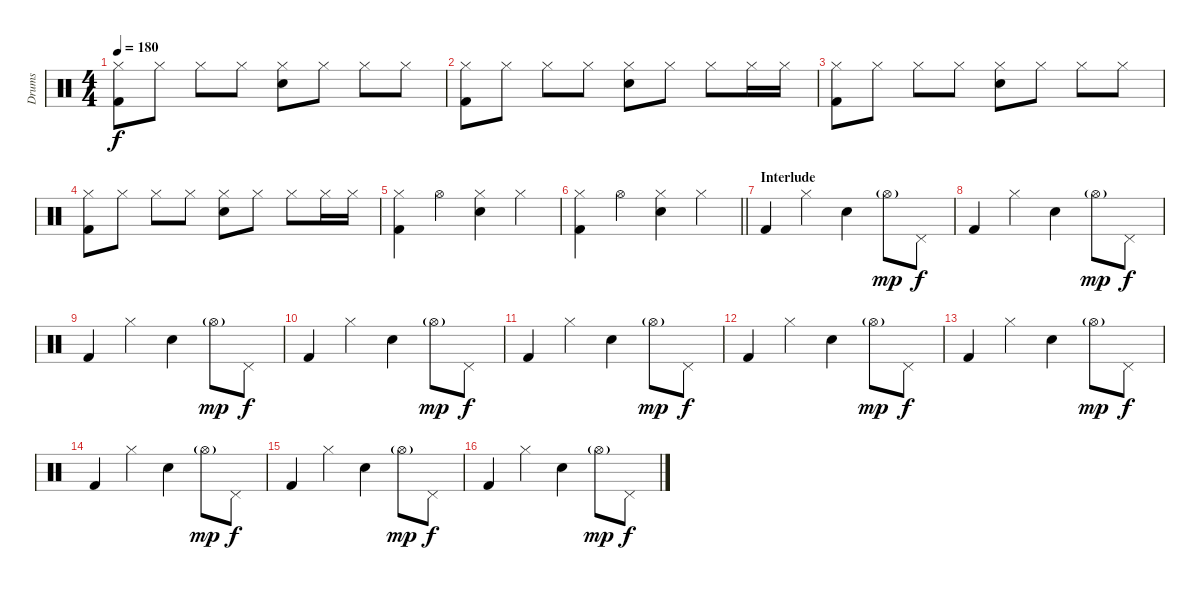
\track ("Drums" "Drums") {instrument percussion}
\staff
\articulation defaults
\ts (4 4)
\tempo 180
\clef neutral
\ks c
("Hi-Hat (closed)" "Kick (hit) 2").8{dy f} "Hi-Hat (closed)".8 "Hi-Hat (closed)".8 "Hi-Hat (closed)".8 ("Hi-Hat (closed)" "Electric Snare (hit)").8 "Hi-Hat (closed)".8 "Hi-Hat (closed)".8 "Hi-Hat (closed)".8 |
("Hi-Hat (closed)" "Kick (hit) 2").8 "Hi-Hat (closed)".8 "Hi-Hat (closed)".8 "Hi-Hat (closed)".8 ("Hi-Hat (closed)" "Electric Snare (hit)").8 "Hi-Hat (closed)".8 "Hi-Hat (closed)".8 "Hi-Hat (closed)".16 "Hi-Hat (closed)".16 |
("Hi-Hat (closed)" "Kick (hit) 2").8 "Hi-Hat (closed)".8 "Hi-Hat (closed)".8 "Hi-Hat (closed)".8 ("Hi-Hat (closed)" "Electric Snare (hit)").8 "Hi-Hat (closed)".8 "Hi-Hat (closed)".8 "Hi-Hat (closed)".8 |
("Hi-Hat (closed)" "Kick (hit) 2").8 "Hi-Hat (closed)".8 "Hi-Hat (closed)".8 "Hi-Hat (closed)".8 ("Hi-Hat (closed)" "Electric Snare (hit)").8 "Hi-Hat (closed)".8 "Hi-Hat (closed)".8 "Hi-Hat (closed)".16 "Hi-Hat (closed)".16 |
("Hi-Hat (closed)" "Kick (hit) 2").4 "Hi-Hat (open)".4 ("Hi-Hat (closed)" "Electric Snare (hit)").4 "Hi-Hat (closed)".4 |
\barLineRight lightlight
("Hi-Hat (closed)" "Kick (hit) 2").4 "Hi-Hat (open)".4 ("Hi-Hat (closed)" "Electric Snare (hit)").4 "Hi-Hat (closed)".4 |
\section ("" "Interlude")
"Kick (hit) 2".4 "Hi-Hat (closed)".4 "Electric Snare (hit)".4 "Hi-Hat (open)"{g}.8{dy mp} "Pedal Hi-Hat (hit)".8{dy f} |
"Kick (hit) 2".4 "Hi-Hat (closed)".4 "Electric Snare (hit)".4 "Hi-Hat (open)"{g}.8{dy mp} "Pedal Hi-Hat (hit)".8{dy f} |
"Kick (hit) 2".4 "Hi-Hat (closed)".4 "Electric Snare (hit)".4 "Hi-Hat (open)"{g}.8{dy mp} "Pedal Hi-Hat (hit)".8{dy f} |
"Kick (hit) 2".4 "Hi-Hat (closed)".4 "Electric Snare (hit)".4 "Hi-Hat (open)"{g}.8{dy mp} "Pedal Hi-Hat (hit)".8{dy f} |
"Kick (hit) 2".4 "Hi-Hat (closed)".4 "Electric Snare (hit)".4 "Hi-Hat (open)"{g}.8{dy mp} "Pedal Hi-Hat (hit)".8{dy f} |
"Kick (hit) 2".4 "Hi-Hat (closed)".4 "Electric Snare (hit)".4 "Hi-Hat (open)"{g}.8{dy mp} "Pedal Hi-Hat (hit)".8{dy f} |
"Kick (hit) 2".4 "Hi-Hat (closed)".4 "Electric Snare (hit)".4 "Hi-Hat (open)"{g}.8{dy mp} "Pedal Hi-Hat (hit)".8{dy f} |
"Kick (hit) 2".4 "Hi-Hat (closed)".4 "Electric Snare (hit)".4 "Hi-Hat (open)"{g}.8{dy mp} "Pedal Hi-Hat (hit)".8{dy f} |
"Kick (hit) 2".4 "Hi-Hat (closed)".4 "Electric Snare (hit)".4 "Hi-Hat (open)"{g}.8{dy mp} "Pedal Hi-Hat (hit)".8{dy f} |
"Kick (hit) 2".4 "Hi-Hat (closed)".4 "Electric Snare (hit)".4 "Hi-Hat (open)"{g}.8{dy mp} "Pedal Hi-Hat (hit)".8{dy f}
